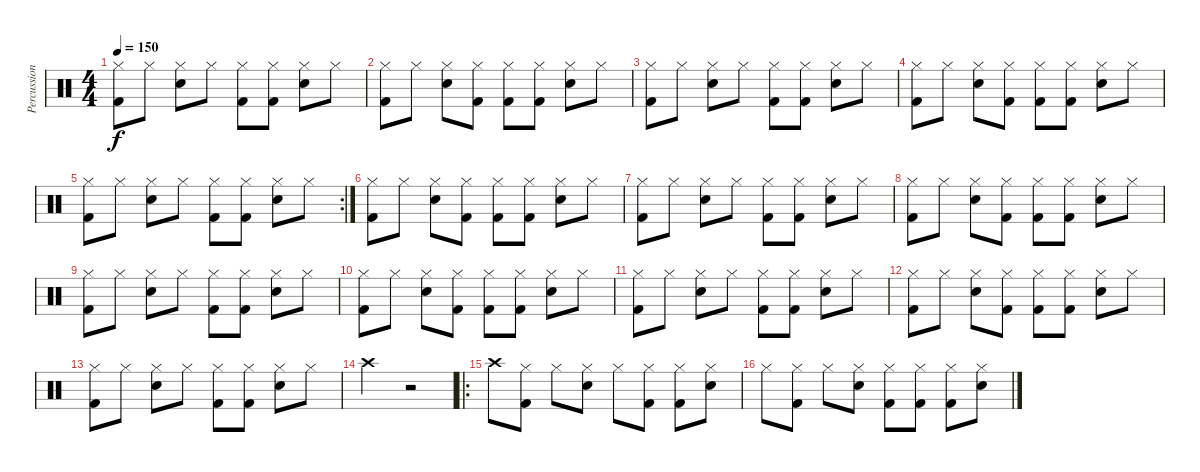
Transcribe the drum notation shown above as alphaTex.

\track ("Percussion" "Percussion") {instrument percussion}
\staff {score}
\articulation defaults
\ts (4 4)
\tempo 150
\clef neutral
\ks c
("Hi-Hat (closed)" "Kick (hit) 2").8{dy f} "Hi-Hat (closed)".8 ("Hi-Hat (closed)" "Snare (hit) 2").8 "Hi-Hat (closed)".8 ("Hi-Hat (closed)" "Kick (hit) 2").8 ("Hi-Hat (closed)" "Kick (hit) 2").8 ("Hi-Hat (closed)" "Snare (hit) 2").8 "Hi-Hat (closed)".8 |
("Hi-Hat (closed)" "Kick (hit) 2").8 "Hi-Hat (closed)".8 ("Hi-Hat (closed)" "Snare (hit) 2").8 ("Hi-Hat (closed)" "Kick (hit) 2").8 ("Hi-Hat (closed)" "Kick (hit) 2").8 ("Hi-Hat (closed)" "Kick (hit) 2").8 ("Hi-Hat (closed)" "Snare (hit) 2").8 "Hi-Hat (closed)".8 |
("Hi-Hat (closed)" "Kick (hit) 2").8 "Hi-Hat (closed)".8 ("Hi-Hat (closed)" "Snare (hit) 2").8 "Hi-Hat (closed)".8 ("Hi-Hat (closed)" "Kick (hit) 2").8 ("Hi-Hat (closed)" "Kick (hit) 2").8 ("Hi-Hat (closed)" "Snare (hit) 2").8 "Hi-Hat (closed)".8 |
("Hi-Hat (closed)" "Kick (hit) 2").8 "Hi-Hat (closed)".8 ("Hi-Hat (closed)" "Snare (hit) 2").8 ("Hi-Hat (closed)" "Kick (hit) 2").8 ("Hi-Hat (closed)" "Kick (hit) 2").8 ("Hi-Hat (closed)" "Kick (hit) 2").8 ("Hi-Hat (closed)" "Snare (hit) 2").8 "Hi-Hat (closed)".8 |
\rc 2
("Hi-Hat (closed)" "Kick (hit) 2").8 "Hi-Hat (closed)".8 ("Hi-Hat (closed)" "Snare (hit) 2").8 "Hi-Hat (closed)".8 ("Hi-Hat (closed)" "Kick (hit) 2").8 ("Hi-Hat (closed)" "Kick (hit) 2").8 ("Hi-Hat (closed)" "Snare (hit) 2").8 "Hi-Hat (closed)".8 |
("Hi-Hat (closed)" "Kick (hit) 2").8 "Hi-Hat (closed)".8 ("Hi-Hat (closed)" "Snare (hit) 2").8 ("Hi-Hat (closed)" "Kick (hit) 2").8 ("Hi-Hat (closed)" "Kick (hit) 2").8 ("Hi-Hat (closed)" "Kick (hit) 2").8 ("Hi-Hat (closed)" "Snare (hit) 2").8 "Hi-Hat (closed)".8 |
("Hi-Hat (closed)" "Kick (hit) 2").8 "Hi-Hat (closed)".8 ("Hi-Hat (closed)" "Snare (hit) 2").8 "Hi-Hat (closed)".8 ("Hi-Hat (closed)" "Kick (hit) 2").8 ("Hi-Hat (closed)" "Kick (hit) 2").8 ("Hi-Hat (closed)" "Snare (hit) 2").8 "Hi-Hat (closed)".8 |
("Hi-Hat (closed)" "Kick (hit) 2").8 "Hi-Hat (closed)".8 ("Hi-Hat (closed)" "Snare (hit) 2").8 ("Hi-Hat (closed)" "Kick (hit) 2").8 ("Hi-Hat (closed)" "Kick (hit) 2").8 ("Hi-Hat (closed)" "Kick (hit) 2").8 ("Hi-Hat (closed)" "Snare (hit) 2").8 "Hi-Hat (closed)".8 |
("Hi-Hat (closed)" "Kick (hit) 2").8 "Hi-Hat (closed)".8 ("Hi-Hat (closed)" "Snare (hit) 2").8 "Hi-Hat (closed)".8 ("Hi-Hat (closed)" "Kick (hit) 2").8 ("Hi-Hat (closed)" "Kick (hit) 2").8 ("Hi-Hat (closed)" "Snare (hit) 2").8 "Hi-Hat (closed)".8 |
("Hi-Hat (closed)" "Kick (hit) 2").8 "Hi-Hat (closed)".8 ("Hi-Hat (closed)" "Snare (hit) 2").8 ("Hi-Hat (closed)" "Kick (hit) 2").8 ("Hi-Hat (closed)" "Kick (hit) 2").8 ("Hi-Hat (closed)" "Kick (hit) 2").8 ("Hi-Hat (closed)" "Snare (hit) 2").8 "Hi-Hat (closed)".8 |
("Hi-Hat (closed)" "Kick (hit) 2").8 "Hi-Hat (closed)".8 ("Hi-Hat (closed)" "Snare (hit) 2").8 "Hi-Hat (closed)".8 ("Hi-Hat (closed)" "Kick (hit) 2").8 ("Hi-Hat (closed)" "Kick (hit) 2").8 ("Hi-Hat (closed)" "Snare (hit) 2").8 "Hi-Hat (closed)".8 |
("Hi-Hat (closed)" "Kick (hit) 2").8 "Hi-Hat (closed)".8 ("Hi-Hat (closed)" "Snare (hit) 2").8 ("Hi-Hat (closed)" "Kick (hit) 2").8 ("Hi-Hat (closed)" "Kick (hit) 2").8 ("Hi-Hat (closed)" "Kick (hit) 2").8 ("Hi-Hat (closed)" "Snare (hit) 2").8 "Hi-Hat (closed)".8 |
("Hi-Hat (closed)" "Kick (hit) 2").8 "Hi-Hat (closed)".8 ("Hi-Hat (closed)" "Snare (hit) 2").8 "Hi-Hat (closed)".8 ("Hi-Hat (closed)" "Kick (hit) 2").8 ("Hi-Hat (closed)" "Kick (hit) 2").8 ("Hi-Hat (closed)" "Snare (hit) 2").8 "Hi-Hat (closed)".8 |
"Crash high (hit)".2 r.2 |
\ro "Crash high (hit)".8
("Hi-Hat (closed)" "Kick (hit) 2").8 "Hi-Hat (closed)".8 ("Hi-Hat (closed)" "Snare (hit) 2").8 "Hi-Hat (closed)".8 ("Hi-Hat (closed)" "Kick (hit) 2").8 ("Hi-Hat (closed)" "Kick (hit) 2").8 ("Hi-Hat (closed)" "Snare (hit) 2").8 |
"Hi-Hat (closed)".8 ("Hi-Hat (closed)" "Kick (hit) 2").8 "Hi-Hat (closed)".8 ("Hi-Hat (closed)" "Snare (hit) 2").8 ("Hi-Hat (closed)" "Kick (hit) 2").8 ("Hi-Hat (closed)" "Kick (hit) 2").8 ("Hi-Hat (closed)" "Kick (hit) 2").8 ("Hi-Hat (closed)" "Snare (hit) 2").8
